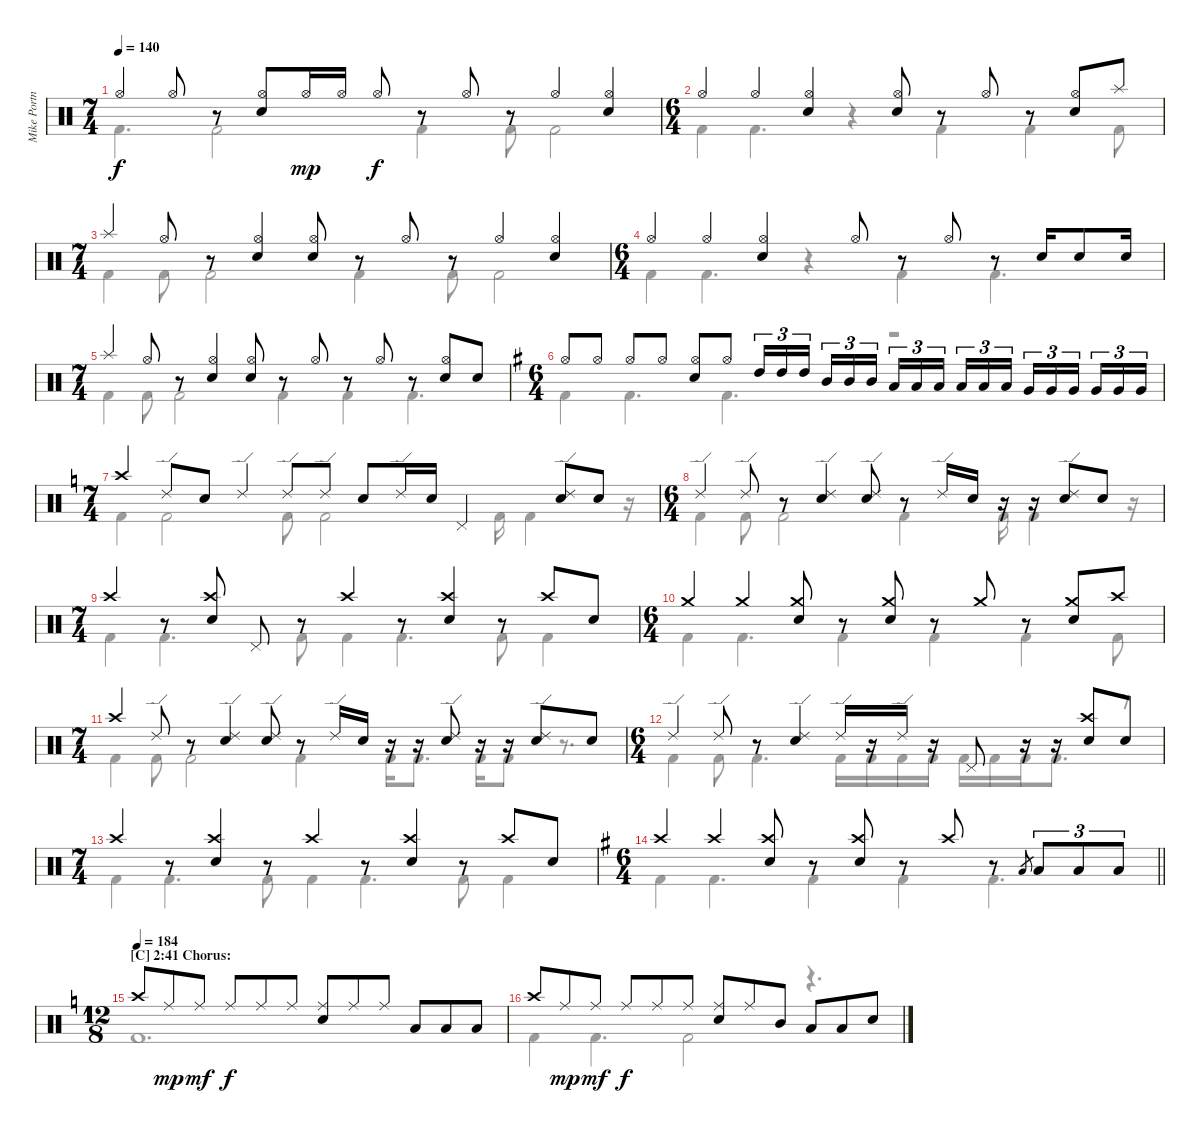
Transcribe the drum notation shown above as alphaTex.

\track ("Mike Portnoy - Drum" "Mike Portn") {instrument percussion}
\staff {score}
\articulation defaults
\voice
\ts (7 4)
\tempo 140
\clef neutral
\ks c "Hi-Hat (open)".4{dy f} "Hi-Hat (open)".8
r.8 ("Hi-Hat (open)" "Electric Snare (hit)").8 "Hi-Hat (open)".16{dy mp} "Hi-Hat (open)".16 "Hi-Hat (open)".8{dy f} r.8 "Hi-Hat (open)".8 r.8 "Hi-Hat (open)".4 ("Hi-Hat (open)" "Electric Snare (hit)").4 |
\ts (6 4)
"Hi-Hat (open)".4 "Hi-Hat (open)".4 ("Hi-Hat (open)" "Electric Snare (hit)").4 ("Hi-Hat (open)" "Electric Snare (hit)").8 r.8 "Hi-Hat (open)".8 r.8 ("Hi-Hat (open)" "Electric Snare (hit)").8 "Splash (hit)".8 |
\ts (7 4)
"Splash (hit)".4 "Hi-Hat (open)".8 r.8 ("Hi-Hat (open)" "Electric Snare (hit)").4 ("Hi-Hat (open)" "Electric Snare (hit)").8 r.8 "Hi-Hat (open)".8 r.8 "Hi-Hat (open)".4 ("Hi-Hat (open)" "Electric Snare (hit)").4 |
\ts (6 4)
"Hi-Hat (open)".4 "Hi-Hat (open)".4 ("Hi-Hat (open)" "Electric Snare (hit)").4 "Hi-Hat (open)".8 r.8 "Hi-Hat (open)".8 r.8 "Electric Snare (hit)".16 "Electric Snare (hit)".8 "Electric Snare (hit)".16 |
\ts (7 4)
"Splash (hit)".4 "Hi-Hat (open)".8 r.8 ("Hi-Hat (open)" "Electric Snare (hit)").4 ("Hi-Hat (open)" "Electric Snare (hit)").8 r.8 "Hi-Hat (open)".8 r.8 "Hi-Hat (open)".8 r.8 ("Hi-Hat (open)" "Electric Snare (hit)").8 "Electric Snare (hit)".8 |
\ts (6 4)
\ks g "Hi-Hat (open)".8 "Hi-Hat (open)".8 "Hi-Hat (open)".8 "Hi-Hat (open)".8
("Hi-Hat (open)" "Electric Snare (hit)").8 "Hi-Hat (open)".8 "High Tom (hit)".16{tu (3 2)} "High Tom (hit)".16{tu (3 2)} "High Tom (hit)".16{tu (3 2) beam splitsecondary} "Mid Tom (hit)".16{tu (3 2)} "Mid Tom (hit)".16{tu (3 2)} "Mid Tom (hit)".16{tu (3 2) beam splitsecondary} "Low Tom (hit)".16{tu (3 2)} "Low Tom (hit)".16{tu (3 2)} "Low Tom (hit)".16{tu (3 2) beam splitsecondary} "Low Tom (hit)".16{tu (3 2)} "Low Tom (hit)".16{tu (3 2)} "Low Tom (hit)".16{tu (3 2) beam splitsecondary} "Very Low Tom (hit)".16{tu (3 2)} "Very Low Tom (hit)".16{tu (3 2)} "Very Low Tom (hit)".16{tu (3 2) beam splitsecondary} "Very Low Tom (hit)".16{tu (3 2)} "Very Low Tom (hit)".16{tu (3 2)} "Very Low Tom (hit)".16{tu (3 2)} |
\ts (7 4)
\ks c "Crash high (hit)".4 "Ride (edge) 2".8 "Electric Snare (hit)".8 "Ride (edge) 2".4 "Ride (edge) 2".8 "Ride (edge) 2".8 "Electric Snare (hit)".8 "Ride (edge) 2".16 "Electric Snare (hit)".16 "Pedal Hi-Hat (hit)".4
("Ride (edge) 2" "Electric Snare (hit)").8 "Electric Snare (hit)".8 |
\ts (6 4)
"Ride (edge) 2".4 "Ride (edge) 2".8 r.8 ("Ride (edge) 2" "Electric Snare (hit)").4 ("Ride (edge) 2" "Electric Snare (hit)").8 r.8 "Ride (edge) 2".16 "Electric Snare (hit)".16 r.16 r.16 ("Ride (edge) 2" "Electric Snare (hit)").8 "Electric Snare (hit)".8 |
\ts (7 4)
"Crash high (hit)".4 r.8 ("Crash high (hit)" "Electric Snare (hit)").8 "Pedal Hi-Hat (hit)".8 r.8 "Crash high (hit)".4 r.8 ("Crash high (hit)" "Electric Snare (hit)").4 r.8 "Crash high (hit)".8 "Electric Snare (hit)".8 |
\ts (6 4)
"Crash medium (hit)".4 "Crash medium (hit)".4 ("Crash medium (hit)" "Electric Snare (hit)").8 r.8 ("Crash medium (hit)" "Electric Snare (hit)").8 r.8 "Crash medium (hit)".8 r.8 ("Crash medium (hit)" "Electric Snare (hit)").8 "Crash high (hit)".8 |
\ts (7 4)
"Crash high (hit)".4 "Ride (edge) 2".8 r.8 ("Ride (edge) 2" "Electric Snare (hit)").4 ("Ride (edge) 2" "Electric Snare (hit)").8 r.8 "Ride (edge) 2".16 "Electric Snare (hit)".16 r.16 r.16 ("Ride (edge) 2" "Electric Snare (hit)").8 r.16 r.16 ("Ride (edge) 2" "Electric Snare (hit)").8 "Electric Snare (hit)".8 |
\ts (6 4)
"Ride (edge) 2".4 "Ride (edge) 2".8 r.8 ("Ride (edge) 2" "Electric Snare (hit)").4 "Ride (edge) 2".16 r.16 "Ride (edge) 2".16 r.16 "Pedal Hi-Hat (hit)".8 r.16 r.16 ("Crash high (hit)" "Electric Snare (hit)").8 "Electric Snare (hit)".8 |
\ts (7 4)
"Crash high (hit)".4 r.8 ("Crash high (hit)" "Electric Snare (hit)").4 r.8 "Crash high (hit)".4 r.8 ("Crash high (hit)" "Electric Snare (hit)").4 r.8 "Crash high (hit)".8 "Electric Snare (hit)".8 |
\ts (6 4)
\barLineRight lightlight
\ks g "Crash high (hit)".4 "Crash high (hit)".4
("Crash high (hit)" "Electric Snare (hit)").8 r.8 ("Crash high (hit)" "Electric Snare (hit)").8 r.8 "Crash high (hit)".8 r.8 "Low Tom (hit)".8{gr} "Low Tom (hit)".8{tu (3 2)} "Low Tom (hit)".8{tu (3 2)} "Low Tom (hit)".8{tu (3 2)} |
\ts (12 8)
\section ("" "[C] 2:41 Chorus:")
\tempo 184
\ks c "Crash high (hit)".8 "Ride (middle)".8{dy mp} "Ride (middle)".8{dy mf} "Ride (middle)".8{dy f} "Ride (middle)".8 "Ride (middle)".8
("Ride (middle)" "Electric Snare (hit)").8 "Ride (middle)".8 "Ride (middle)".8 "Low Tom (hit)".8 "Low Tom (hit)".8 "Low Tom (hit)".8 |
"Crash high (hit)".8 "Ride (middle)".8{dy mp} "Ride (middle)".8{dy mf} "Ride (middle)".8{dy f} "Ride (middle)".8 "Ride (middle)".8 ("Ride (middle)" "Electric Snare (hit)").8 "Ride (middle)".8 "Mid Tom (hit)".8 "Low Tom (hit)".8 "Low Tom (hit)".8 "Electric Snare (hit)".8
\voice
\clef neutral
\ottava regular
\simile none
\ks c "Kick (hit) 2".4{d dy f} "Kick (hit) 2".2 "Kick (hit) 2".4 "Kick (hit) 2".8 "Kick (hit) 2".2
|
"Kick (hit) 2".4 "Kick (hit) 2".4{d} r.4 "Kick (hit) 2".4 "Kick (hit) 2".4 "Kick (hit) 2".8 |
"Kick (hit) 2".4 "Kick (hit) 2".8 "Kick (hit) 2".2 "Kick (hit) 2".4 "Kick (hit) 2".8 "Kick (hit) 2".2 |
"Kick (hit) 2".4 "Kick (hit) 2".4{d} r.4 "Kick (hit) 2".4 "Kick (hit) 2".4{d} |
"Kick (hit) 2".4 "Kick (hit) 2".8 "Kick (hit) 2".2 "Kick (hit) 2".4 "Kick (hit) 2".4 "Kick (hit) 2".4{d} |
\ks g "Kick (hit) 2".4 "Kick (hit) 2".4{d} "Kick (hit) 2".4{d}
r.2 |
\ks c "Kick (hit) 2".4 "Kick (hit) 2".2 "Kick (hit) 2".8 "Kick (hit) 2".2 "Kick (hit) 2".16 "Kick (hit) 2".4
r.16 |
"Kick (hit) 2".4 "Kick (hit) 2".8 "Kick (hit) 2".2 "Kick (hit) 2".4 "Kick (hit) 2".16 "Kick (hit) 2".4 r.16 |
"Kick (hit) 2".4 "Kick (hit) 2".4{d} "Kick (hit) 2".8 "Kick (hit) 2".4 "Kick (hit) 2".4{d} "Kick (hit) 2".8 "Kick (hit) 2".4 |
"Kick (hit) 2".4 "Kick (hit) 2".4{d} "Kick (hit) 2".4 "Kick (hit) 2".4 "Kick (hit) 2".4 "Kick (hit) 2".8 |
"Kick (hit) 2".4 "Kick (hit) 2".8 "Kick (hit) 2".2 "Kick (hit) 2".4 "Kick (hit) 2".16 "Kick (hit) 2".8{d} "Kick (hit) 2".16 "Kick (hit) 2".8 r.8{d} |
"Kick (hit) 2".4 "Kick (hit) 2".8 "Kick (hit) 2".4{d} "Kick (hit) 2".16 "Kick (hit) 2".16 "Kick (hit) 2".16 "Kick (hit) 2".16 "Kick (hit) 2".16 "Kick (hit) 2".16 "Kick (hit) 2".16 "Kick (hit) 2".8{d} r.8 |
"Kick (hit) 2".4 "Kick (hit) 2".4{d} "Kick (hit) 2".8 "Kick (hit) 2".4 "Kick (hit) 2".4{d} "Kick (hit) 2".8 "Kick (hit) 2".4 |
\barLineRight lightlight
\ks g "Kick (hit) 2".4 "Kick (hit) 2".4{d} "Kick (hit) 2".4 "Kick (hit) 2".4 "Kick (hit) 2".4{d}
|
\ks c "Kick (hit) 2".1{d}
|
"Kick (hit) 2".4 "Kick (hit) 2".4{d} "Kick (hit) 2".2 r.4{d}
